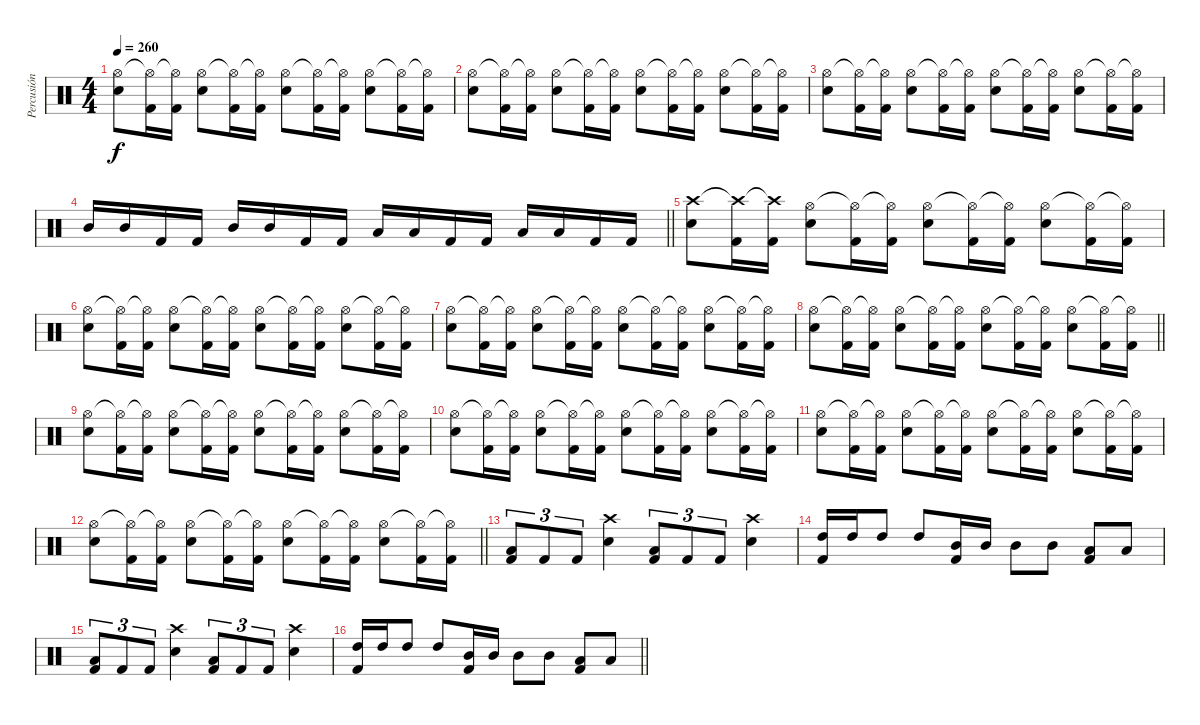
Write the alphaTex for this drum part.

\track ("Percusión" "Percusión") {instrument percussion}
\staff {score}
\articulation defaults
\ts (4 4)
\tempo 260
\clef neutral
\ks c
("Snare (hit) 2" "Hi-Hat (open)").8{dy f} ("Kick (hit) 2" "Hi-Hat (open)"{t}).16 ("Kick (hit) 2" "Hi-Hat (open)"{t}).16 ("Snare (hit) 2" "Hi-Hat (open)").8 ("Kick (hit) 2" "Hi-Hat (open)"{t}).16 ("Kick (hit) 2" "Hi-Hat (open)"{t}).16 ("Snare (hit) 2" "Hi-Hat (open)").8 ("Kick (hit) 2" "Hi-Hat (open)"{t}).16 ("Kick (hit) 2" "Hi-Hat (open)"{t}).16 ("Snare (hit) 2" "Hi-Hat (open)").8 ("Kick (hit) 2" "Hi-Hat (open)"{t}).16 ("Kick (hit) 2" "Hi-Hat (open)"{t}).16 |
("Snare (hit) 2" "Hi-Hat (open)").8 ("Kick (hit) 2" "Hi-Hat (open)"{t}).16 ("Kick (hit) 2" "Hi-Hat (open)"{t}).16 ("Snare (hit) 2" "Hi-Hat (open)").8 ("Kick (hit) 2" "Hi-Hat (open)"{t}).16 ("Kick (hit) 2" "Hi-Hat (open)"{t}).16 ("Snare (hit) 2" "Hi-Hat (open)").8 ("Kick (hit) 2" "Hi-Hat (open)"{t}).16 ("Kick (hit) 2" "Hi-Hat (open)"{t}).16 ("Snare (hit) 2" "Hi-Hat (open)").8 ("Kick (hit) 2" "Hi-Hat (open)"{t}).16 ("Kick (hit) 2" "Hi-Hat (open)"{t}).16 |
("Snare (hit) 2" "Hi-Hat (open)").8 ("Kick (hit) 2" "Hi-Hat (open)"{t}).16 ("Kick (hit) 2" "Hi-Hat (open)"{t}).16 ("Snare (hit) 2" "Hi-Hat (open)").8 ("Kick (hit) 2" "Hi-Hat (open)"{t}).16 ("Kick (hit) 2" "Hi-Hat (open)"{t}).16 ("Snare (hit) 2" "Hi-Hat (open)").8 ("Kick (hit) 2" "Hi-Hat (open)"{t}).16 ("Kick (hit) 2" "Hi-Hat (open)"{t}).16 ("Snare (hit) 2" "Hi-Hat (open)").8 ("Kick (hit) 2" "Hi-Hat (open)"{t}).16 ("Kick (hit) 2" "Hi-Hat (open)"{t}).16 |
\barLineRight lightlight "Mid Tom (hit)".16 "Mid Tom (hit)".16 "Kick (hit) 2".16 "Kick (hit) 2".16 "Mid Tom (hit)".16 "Mid Tom (hit)".16 "Kick (hit) 2".16 "Kick (hit) 2".16 "Low Tom (hit)".16 "Low Tom (hit)".16 "Kick (hit) 2".16 "Kick (hit) 2".16 "Low Tom (hit)".16 "Low Tom (hit)".16 "Kick (hit) 2".16 "Kick (hit) 2".16
|
("Snare (hit) 2" "Crash high (hit)").8 ("Kick (hit) 2" "Crash high (hit)"{t}).16 ("Kick (hit) 2" "Crash high (hit)"{t}).16 ("Snare (hit) 2" "Hi-Hat (open)").8 ("Kick (hit) 2" "Hi-Hat (open)"{t}).16 ("Kick (hit) 2" "Hi-Hat (open)"{t}).16 ("Snare (hit) 2" "Hi-Hat (open)").8 ("Kick (hit) 2" "Hi-Hat (open)"{t}).16 ("Kick (hit) 2" "Hi-Hat (open)"{t}).16 ("Snare (hit) 2" "Hi-Hat (open)").8 ("Kick (hit) 2" "Hi-Hat (open)"{t}).16 ("Kick (hit) 2" "Hi-Hat (open)"{t}).16 |
("Snare (hit) 2" "Hi-Hat (open)").8 ("Kick (hit) 2" "Hi-Hat (open)"{t}).16 ("Kick (hit) 2" "Hi-Hat (open)"{t}).16 ("Snare (hit) 2" "Hi-Hat (open)").8 ("Kick (hit) 2" "Hi-Hat (open)"{t}).16 ("Kick (hit) 2" "Hi-Hat (open)"{t}).16 ("Snare (hit) 2" "Hi-Hat (open)").8 ("Kick (hit) 2" "Hi-Hat (open)"{t}).16 ("Kick (hit) 2" "Hi-Hat (open)"{t}).16 ("Snare (hit) 2" "Hi-Hat (open)").8 ("Kick (hit) 2" "Hi-Hat (open)"{t}).16 ("Kick (hit) 2" "Hi-Hat (open)"{t}).16 |
("Snare (hit) 2" "Hi-Hat (open)").8 ("Kick (hit) 2" "Hi-Hat (open)"{t}).16 ("Kick (hit) 2" "Hi-Hat (open)"{t}).16 ("Snare (hit) 2" "Hi-Hat (open)").8 ("Kick (hit) 2" "Hi-Hat (open)"{t}).16 ("Kick (hit) 2" "Hi-Hat (open)"{t}).16 ("Snare (hit) 2" "Hi-Hat (open)").8 ("Kick (hit) 2" "Hi-Hat (open)"{t}).16 ("Kick (hit) 2" "Hi-Hat (open)"{t}).16 ("Snare (hit) 2" "Hi-Hat (open)").8 ("Kick (hit) 2" "Hi-Hat (open)"{t}).16 ("Kick (hit) 2" "Hi-Hat (open)"{t}).16 |
\barLineRight lightlight
("Snare (hit) 2" "Hi-Hat (open)").8 ("Kick (hit) 2" "Hi-Hat (open)"{t}).16 ("Kick (hit) 2" "Hi-Hat (open)"{t}).16 ("Snare (hit) 2" "Hi-Hat (open)").8 ("Kick (hit) 2" "Hi-Hat (open)"{t}).16 ("Kick (hit) 2" "Hi-Hat (open)"{t}).16 ("Snare (hit) 2" "Hi-Hat (open)").8 ("Kick (hit) 2" "Hi-Hat (open)"{t}).16 ("Kick (hit) 2" "Hi-Hat (open)"{t}).16 ("Snare (hit) 2" "Hi-Hat (open)").8 ("Kick (hit) 2" "Hi-Hat (open)"{t}).16 ("Kick (hit) 2" "Hi-Hat (open)"{t}).16 |
("Snare (hit) 2" "Hi-Hat (open)").8 ("Kick (hit) 2" "Hi-Hat (open)"{t}).16 ("Kick (hit) 2" "Hi-Hat (open)"{t}).16 ("Snare (hit) 2" "Hi-Hat (open)").8 ("Kick (hit) 2" "Hi-Hat (open)"{t}).16 ("Kick (hit) 2" "Hi-Hat (open)"{t}).16 ("Snare (hit) 2" "Hi-Hat (open)").8 ("Kick (hit) 2" "Hi-Hat (open)"{t}).16 ("Kick (hit) 2" "Hi-Hat (open)"{t}).16 ("Snare (hit) 2" "Hi-Hat (open)").8 ("Kick (hit) 2" "Hi-Hat (open)"{t}).16 ("Kick (hit) 2" "Hi-Hat (open)"{t}).16 |
("Snare (hit) 2" "Hi-Hat (open)").8 ("Kick (hit) 2" "Hi-Hat (open)"{t}).16 ("Kick (hit) 2" "Hi-Hat (open)"{t}).16 ("Snare (hit) 2" "Hi-Hat (open)").8 ("Kick (hit) 2" "Hi-Hat (open)"{t}).16 ("Kick (hit) 2" "Hi-Hat (open)"{t}).16 ("Snare (hit) 2" "Hi-Hat (open)").8 ("Kick (hit) 2" "Hi-Hat (open)"{t}).16 ("Kick (hit) 2" "Hi-Hat (open)"{t}).16 ("Snare (hit) 2" "Hi-Hat (open)").8 ("Kick (hit) 2" "Hi-Hat (open)"{t}).16 ("Kick (hit) 2" "Hi-Hat (open)"{t}).16 |
("Snare (hit) 2" "Hi-Hat (open)").8 ("Kick (hit) 2" "Hi-Hat (open)"{t}).16 ("Kick (hit) 2" "Hi-Hat (open)"{t}).16 ("Snare (hit) 2" "Hi-Hat (open)").8 ("Kick (hit) 2" "Hi-Hat (open)"{t}).16 ("Kick (hit) 2" "Hi-Hat (open)"{t}).16 ("Snare (hit) 2" "Hi-Hat (open)").8 ("Kick (hit) 2" "Hi-Hat (open)"{t}).16 ("Kick (hit) 2" "Hi-Hat (open)"{t}).16 ("Snare (hit) 2" "Hi-Hat (open)").8 ("Kick (hit) 2" "Hi-Hat (open)"{t}).16 ("Kick (hit) 2" "Hi-Hat (open)"{t}).16 |
\barLineRight lightlight
("Snare (hit) 2" "Hi-Hat (open)").8 ("Kick (hit) 2" "Hi-Hat (open)"{t}).16 ("Kick (hit) 2" "Hi-Hat (open)"{t}).16 ("Snare (hit) 2" "Hi-Hat (open)").8 ("Kick (hit) 2" "Hi-Hat (open)"{t}).16 ("Kick (hit) 2" "Hi-Hat (open)"{t}).16 ("Snare (hit) 2" "Hi-Hat (open)").8 ("Kick (hit) 2" "Hi-Hat (open)"{t}).16 ("Kick (hit) 2" "Hi-Hat (open)"{t}).16 ("Snare (hit) 2" "Hi-Hat (open)").8 ("Kick (hit) 2" "Hi-Hat (open)"{t}).16 ("Kick (hit) 2" "Hi-Hat (open)"{t}).16 |
("Low Tom (hit)" "Kick (hit) 2").8{tu (3 2)} "Kick (hit) 2".8{tu (3 2)} "Kick (hit) 2".8{tu (3 2)} ("Snare (hit) 2" "Crash high (hit)").4 ("Low Tom (hit)" "Kick (hit) 2").8{tu (3 2)} "Kick (hit) 2".8{tu (3 2)} "Kick (hit) 2".8{tu (3 2)} ("Snare (hit) 2" "Crash high (hit)").4 |
("Kick (hit) 2" "High Tom (hit)").16 "High Tom (hit)".16 "High Tom (hit)".8 "High Tom (hit)".8 ("Kick (hit) 2" "Mid Tom (hit)").16 "Mid Tom (hit)".16 "Mid Tom (hit)".8 "Mid Tom (hit)".8 ("Kick (hit) 2" "Low Tom (hit)").8 "Low Tom (hit)".8 |
("Low Tom (hit)" "Kick (hit) 2").8{tu (3 2)} "Kick (hit) 2".8{tu (3 2)} "Kick (hit) 2".8{tu (3 2)} ("Snare (hit) 2" "Crash high (hit)").4 ("Low Tom (hit)" "Kick (hit) 2").8{tu (3 2)} "Kick (hit) 2".8{tu (3 2)} "Kick (hit) 2".8{tu (3 2)} ("Snare (hit) 2" "Crash high (hit)").4 |
\barLineRight lightlight
("Kick (hit) 2" "High Tom (hit)").16 "High Tom (hit)".16 "High Tom (hit)".8 "High Tom (hit)".8 ("Kick (hit) 2" "Mid Tom (hit)").16 "Mid Tom (hit)".16 "Mid Tom (hit)".8 "Mid Tom (hit)".8 ("Kick (hit) 2" "Low Tom (hit)").8 "Low Tom (hit)".8
